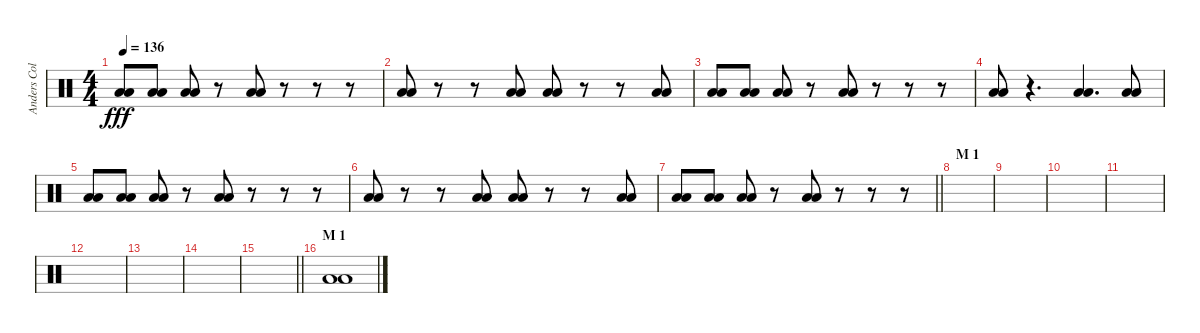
\track ("Anders Colsefini" "Anders Col") {instrument percussion}
\staff {score}
\articulation defaults
\ts (4 4)
\tempo 136
\clef neutral
\ks c
("Low Floor Tom (hit)" "Low Floor Tom (hit)").8{dy fff} ("Low Floor Tom (hit)" "Low Floor Tom (hit)").8 ("Low Floor Tom (hit)" "Low Floor Tom (hit)").8 r.8 ("Low Floor Tom (hit)" "Low Floor Tom (hit)").8 r.8 r.8 r.8 |
("Low Floor Tom (hit)" "Low Floor Tom (hit)").8 r.8 r.8 ("Low Floor Tom (hit)" "Low Floor Tom (hit)").8 ("Low Floor Tom (hit)" "Low Floor Tom (hit)").8 r.8 r.8 ("Low Floor Tom (hit)" "Low Floor Tom (hit)").8 |
("Low Floor Tom (hit)" "Low Floor Tom (hit)").8 ("Low Floor Tom (hit)" "Low Floor Tom (hit)").8 ("Low Floor Tom (hit)" "Low Floor Tom (hit)").8 r.8 ("Low Floor Tom (hit)" "Low Floor Tom (hit)").8 r.8 r.8 r.8 |
("Low Floor Tom (hit)" "Low Floor Tom (hit)").8 r.4{d} ("Low Floor Tom (hit)" "Low Floor Tom (hit)").4{d} ("Low Floor Tom (hit)" "Low Floor Tom (hit)").8 |
("Low Floor Tom (hit)" "Low Floor Tom (hit)").8 ("Low Floor Tom (hit)" "Low Floor Tom (hit)").8 ("Low Floor Tom (hit)" "Low Floor Tom (hit)").8 r.8 ("Low Floor Tom (hit)" "Low Floor Tom (hit)").8 r.8 r.8 r.8 |
("Low Floor Tom (hit)" "Low Floor Tom (hit)").8 r.8 r.8 ("Low Floor Tom (hit)" "Low Floor Tom (hit)").8 ("Low Floor Tom (hit)" "Low Floor Tom (hit)").8 r.8 r.8 ("Low Floor Tom (hit)" "Low Floor Tom (hit)").8 |
\barLineRight lightlight
("Low Floor Tom (hit)" "Low Floor Tom (hit)").8 ("Low Floor Tom (hit)" "Low Floor Tom (hit)").8 ("Low Floor Tom (hit)" "Low Floor Tom (hit)").8 r.8 ("Low Floor Tom (hit)" "Low Floor Tom (hit)").8 r.8 r.8 r.8 |
\section ("" "M 1")
|
|
|
|
|
|
|
\barLineRight lightlight
|
\section ("" "M 1")
("Low Floor Tom (hit)" "Low Floor Tom (hit)").1
